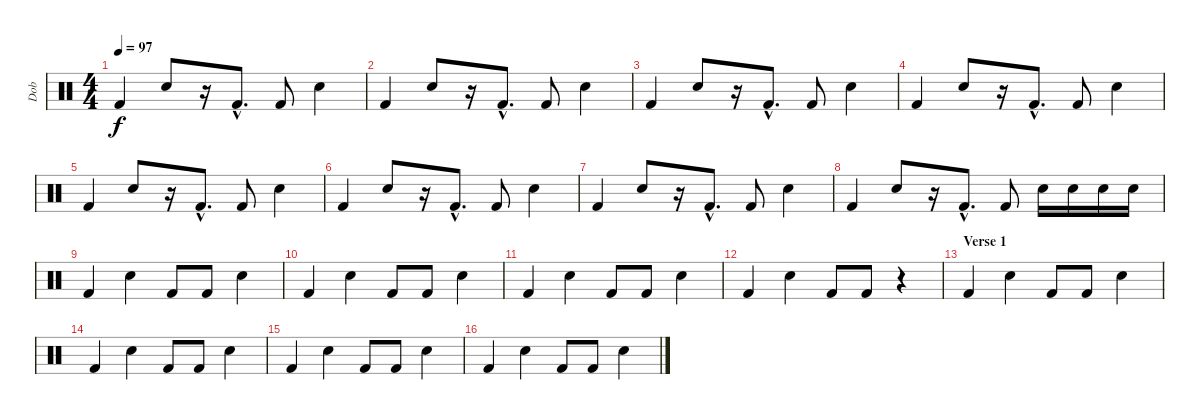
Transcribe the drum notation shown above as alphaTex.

\track ("Dob" "Dob") {instrument percussion}
\staff {score}
\articulation defaults
\ts (4 4)
\tempo 97
\clef neutral
\ks c "Kick (hit) 2".4{dy f} "Snare (hit) 2".8
r.16 "Kick (hit) 2"{hac}.8{d} "Kick (hit) 2".8 "Snare (hit) 2".4 |
"Kick (hit) 2".4 "Snare (hit) 2".8 r.16 "Kick (hit) 2"{hac}.8{d} "Kick (hit) 2".8 "Snare (hit) 2".4 |
"Kick (hit) 2".4 "Snare (hit) 2".8 r.16 "Kick (hit) 2"{hac}.8{d} "Kick (hit) 2".8 "Snare (hit) 2".4 |
"Kick (hit) 2".4 "Snare (hit) 2".8 r.16 "Kick (hit) 2"{hac}.8{d} "Kick (hit) 2".8 "Snare (hit) 2".4 |
"Kick (hit) 2".4 "Snare (hit) 2".8 r.16 "Kick (hit) 2"{hac}.8{d} "Kick (hit) 2".8 "Snare (hit) 2".4 |
"Kick (hit) 2".4 "Snare (hit) 2".8 r.16 "Kick (hit) 2"{hac}.8{d} "Kick (hit) 2".8 "Snare (hit) 2".4 |
"Kick (hit) 2".4 "Snare (hit) 2".8 r.16 "Kick (hit) 2"{hac}.8{d} "Kick (hit) 2".8 "Snare (hit) 2".4 |
"Kick (hit) 2".4 "Snare (hit) 2".8 r.16 "Kick (hit) 2"{hac}.8{d} "Kick (hit) 2".8 "Snare (hit) 2".16 "Snare (hit) 2".16 "Snare (hit) 2".16 "Snare (hit) 2".16 |
"Kick (hit) 2".4 "Snare (hit) 2".4 "Kick (hit) 2".8 "Kick (hit) 2".8 "Snare (hit) 2".4 |
"Kick (hit) 2".4 "Snare (hit) 2".4 "Kick (hit) 2".8 "Kick (hit) 2".8 "Snare (hit) 2".4 |
"Kick (hit) 2".4 "Snare (hit) 2".4 "Kick (hit) 2".8 "Kick (hit) 2".8 "Snare (hit) 2".4 |
"Kick (hit) 2".4 "Snare (hit) 2".4 "Kick (hit) 2".8 "Kick (hit) 2".8 r.4 |
\section ("" "Verse 1")
"Kick (hit) 2".4 "Snare (hit) 2".4 "Kick (hit) 2".8 "Kick (hit) 2".8 "Snare (hit) 2".4 |
"Kick (hit) 2".4 "Snare (hit) 2".4 "Kick (hit) 2".8 "Kick (hit) 2".8 "Snare (hit) 2".4 |
"Kick (hit) 2".4 "Snare (hit) 2".4 "Kick (hit) 2".8 "Kick (hit) 2".8 "Snare (hit) 2".4 |
"Kick (hit) 2".4 "Snare (hit) 2".4 "Kick (hit) 2".8 "Kick (hit) 2".8 "Snare (hit) 2".4
